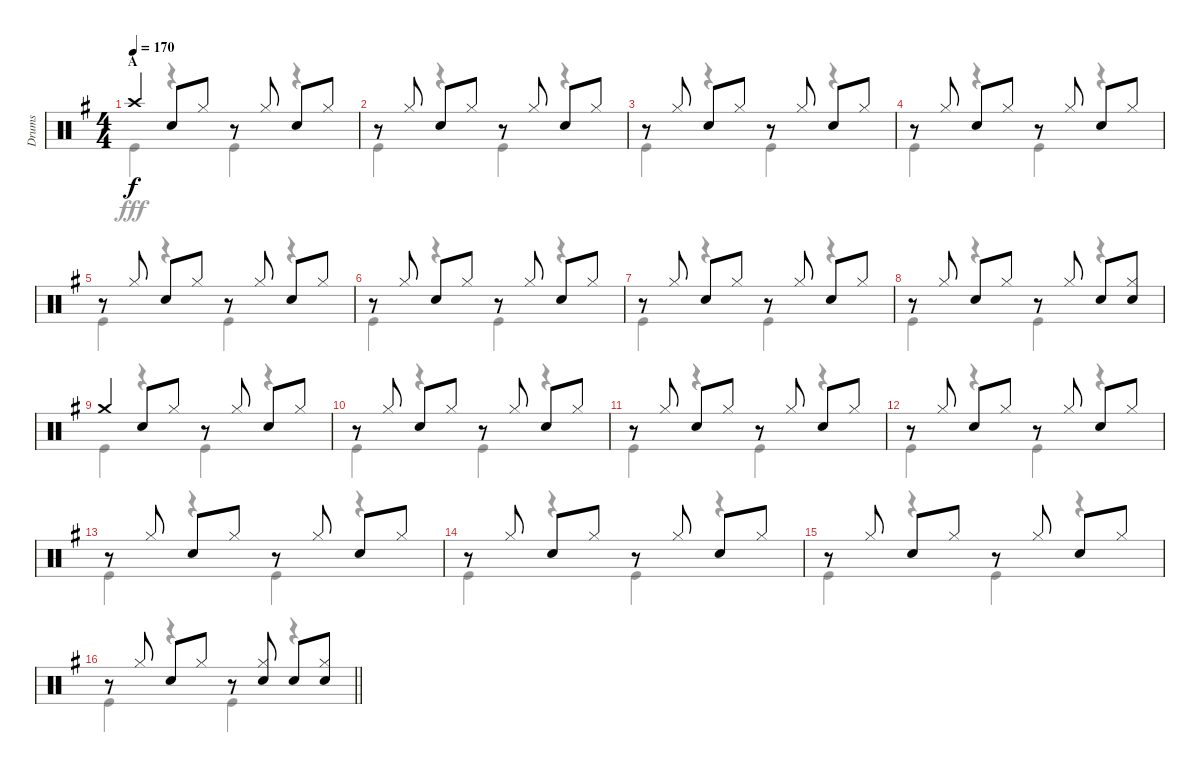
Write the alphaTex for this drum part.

\track ("Drums" "Drums") {instrument percussion}
\staff {score}
\articulation defaults
\voice
\ts (4 4)
\section ("" "A")
\tempo 170
\clef neutral
\ks g "Crash high (hit)".4{dy f} "Snare (hit) 2".8 "Hi-Hat (closed)".8
r.8 "Hi-Hat (closed)".8 "Snare (hit) 2".8 "Hi-Hat (closed)".8 |
r.8 "Hi-Hat (closed)".8 "Snare (hit) 2".8 "Hi-Hat (closed)".8 r.8 "Hi-Hat (closed)".8 "Snare (hit) 2".8 "Hi-Hat (closed)".8 |
r.8 "Hi-Hat (closed)".8 "Snare (hit) 2".8 "Hi-Hat (closed)".8 r.8 "Hi-Hat (closed)".8 "Snare (hit) 2".8 "Hi-Hat (closed)".8 |
r.8 "Hi-Hat (closed)".8 "Snare (hit) 2".8 "Hi-Hat (closed)".8 r.8 "Hi-Hat (closed)".8 "Snare (hit) 2".8 "Hi-Hat (closed)".8 |
r.8 "Hi-Hat (closed)".8 "Snare (hit) 2".8 "Hi-Hat (closed)".8 r.8 "Hi-Hat (closed)".8 "Snare (hit) 2".8 "Hi-Hat (closed)".8 |
r.8 "Hi-Hat (closed)".8 "Snare (hit) 2".8 "Hi-Hat (closed)".8 r.8 "Hi-Hat (closed)".8 "Snare (hit) 2".8 "Hi-Hat (closed)".8 |
r.8 "Hi-Hat (closed)".8 "Snare (hit) 2".8 "Hi-Hat (closed)".8 r.8 "Hi-Hat (closed)".8 "Snare (hit) 2".8 "Hi-Hat (closed)".8 |
r.8 "Hi-Hat (closed)".8 "Snare (hit) 2".8 "Hi-Hat (closed)".8 r.8 "Hi-Hat (closed)".8 "Snare (hit) 2".8 ("Hi-Hat (closed)" "Snare (hit) 2").8 |
"Crash medium (hit)".4 "Snare (hit) 2".8 "Hi-Hat (closed)".8 r.8 "Hi-Hat (closed)".8 "Snare (hit) 2".8 "Hi-Hat (closed)".8 |
r.8 "Hi-Hat (closed)".8 "Snare (hit) 2".8 "Hi-Hat (closed)".8 r.8 "Hi-Hat (closed)".8 "Snare (hit) 2".8 "Hi-Hat (closed)".8 |
r.8 "Hi-Hat (closed)".8 "Snare (hit) 2".8 "Hi-Hat (closed)".8 r.8 "Hi-Hat (closed)".8 "Snare (hit) 2".8 "Hi-Hat (closed)".8 |
r.8 "Hi-Hat (closed)".8 "Snare (hit) 2".8 "Hi-Hat (closed)".8 r.8 "Hi-Hat (closed)".8 "Snare (hit) 2".8 "Hi-Hat (closed)".8 |
r.8 "Hi-Hat (closed)".8 "Snare (hit) 2".8 "Hi-Hat (closed)".8 r.8 "Hi-Hat (closed)".8 "Snare (hit) 2".8 "Hi-Hat (closed)".8 |
r.8 "Hi-Hat (closed)".8 "Snare (hit) 2".8 "Hi-Hat (closed)".8 r.8 "Hi-Hat (closed)".8 "Snare (hit) 2".8 "Hi-Hat (closed)".8 |
r.8 "Hi-Hat (closed)".8 "Snare (hit) 2".8 "Hi-Hat (closed)".8 r.8 "Hi-Hat (closed)".8 "Snare (hit) 2".8 "Hi-Hat (closed)".8 |
\barLineRight lightlight
r.8 "Hi-Hat (closed)".8 "Snare (hit) 2".8 "Hi-Hat (closed)".8 r.8 ("Hi-Hat (closed)" "Snare (hit) 2").8 "Snare (hit) 2".8 ("Hi-Hat (closed)" "Snare (hit) 2").8
\voice
\clef neutral
\ottava regular
\simile none
\ks g "Kick (hit)".4{dy fff}
r.4 "Kick (hit)".4 r.4 |
"Kick (hit)".4 r.4 "Kick (hit)".4 r.4 |
"Kick (hit)".4 r.4 "Kick (hit)".4 r.4 |
"Kick (hit)".4 r.4 "Kick (hit)".4 r.4 |
"Kick (hit)".4 r.4 "Kick (hit)".4 r.4 |
"Kick (hit)".4 r.4 "Kick (hit)".4 r.4 |
"Kick (hit)".4 r.4 "Kick (hit)".4 r.4 |
"Kick (hit)".4 r.4 "Kick (hit)".4 r.4 |
"Kick (hit)".4 r.4 "Kick (hit)".4 r.4 |
"Kick (hit)".4 r.4 "Kick (hit)".4 r.4 |
"Kick (hit)".4 r.4 "Kick (hit)".4 r.4 |
"Kick (hit)".4 r.4 "Kick (hit)".4 r.4 |
"Kick (hit)".4 r.4 "Kick (hit)".4 r.4 |
"Kick (hit)".4 r.4 "Kick (hit)".4 r.4 |
"Kick (hit)".4 r.4 "Kick (hit)".4 r.4 |
\barLineRight lightlight "Kick (hit)".4
r.4 "Kick (hit)".4 r.4
